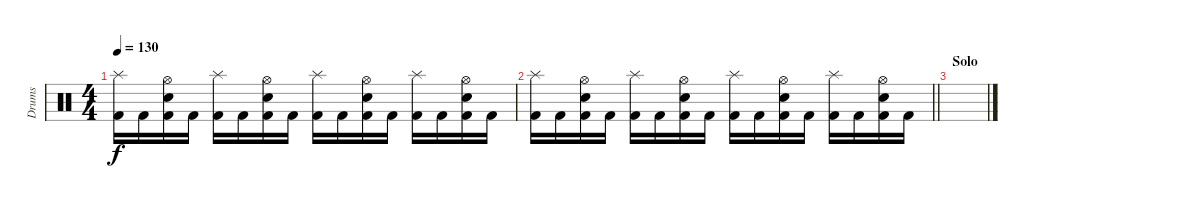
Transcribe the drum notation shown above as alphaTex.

\track ("Drums" "Drums") {instrument percussion}
\staff {score}
\articulation defaults
\ts (4 4)
\tempo 130
\clef neutral
\ks c
("Splash (hit)" "Kick (hit) 2").16{dy f} "Kick (hit) 2".16 ("Hi-Hat (open)" "Electric Snare (hit)" "Kick (hit) 2").16 "Kick (hit) 2".16 ("Splash (hit)" "Kick (hit) 2").16 "Kick (hit) 2".16 ("Hi-Hat (open)" "Electric Snare (hit)" "Kick (hit) 2").16 "Kick (hit) 2".16 ("Splash (hit)" "Kick (hit) 2").16 "Kick (hit) 2".16 ("Hi-Hat (open)" "Electric Snare (hit)" "Kick (hit) 2").16 "Kick (hit) 2".16 ("Splash (hit)" "Kick (hit) 2").16 "Kick (hit) 2".16 ("Hi-Hat (open)" "Electric Snare (hit)" "Kick (hit) 2").16 "Kick (hit) 2".16 |
\barLineRight lightlight
("Splash (hit)" "Kick (hit) 2").16 "Kick (hit) 2".16 ("Hi-Hat (open)" "Electric Snare (hit)" "Kick (hit) 2").16 "Kick (hit) 2".16 ("Splash (hit)" "Kick (hit) 2").16 "Kick (hit) 2".16 ("Hi-Hat (open)" "Electric Snare (hit)" "Kick (hit) 2").16 "Kick (hit) 2".16 ("Splash (hit)" "Kick (hit) 2").16 "Kick (hit) 2".16 ("Hi-Hat (open)" "Electric Snare (hit)" "Kick (hit) 2").16 "Kick (hit) 2".16 ("Splash (hit)" "Kick (hit) 2").16 "Kick (hit) 2".16 ("Hi-Hat (open)" "Electric Snare (hit)" "Kick (hit) 2").16 "Kick (hit) 2".16 |
\section ("" "Solo")
